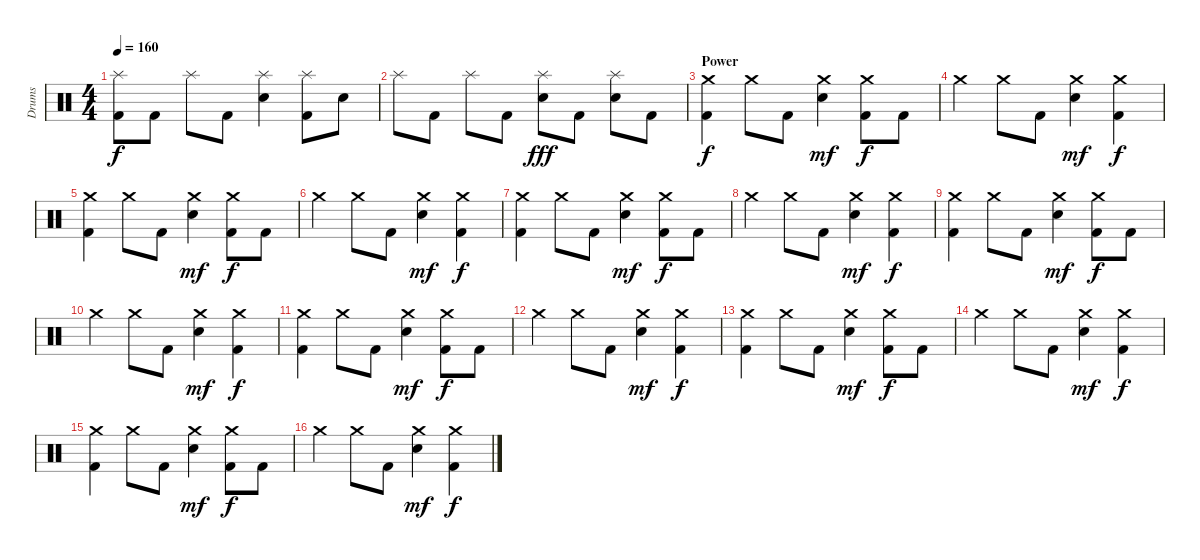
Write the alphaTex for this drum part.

\track ("Drums" "Drums") {instrument percussion}
\staff {score}
\articulation defaults
\ts (4 4)
\tempo 160
\clef neutral
\ks c
("Splash (hit)" "Kick (hit) 2").8{dy f} "Kick (hit) 2".8 "Splash (hit)".8 "Kick (hit) 2".8 ("Splash (hit)" "Electric Snare (hit)").4 ("Splash (hit)" "Kick (hit) 2").8 "Electric Snare (hit)".8 |
"Splash (hit)".8 "Kick (hit) 2".8 "Splash (hit)".8 "Kick (hit) 2".8 ("Splash (hit)" "Electric Snare (hit)").8{dy fff} "Kick (hit) 2".8 ("Splash (hit)" "Electric Snare (hit)").8 "Kick (hit) 2".8 |
\section ("" "Power")
("Crash medium (hit)" "Kick (hit) 2").4{dy f} "Crash medium (hit)".8 "Kick (hit) 2".8 ("Crash medium (hit)" "Electric Snare (hit)").4{dy mf} ("Crash medium (hit)" "Kick (hit) 2").8{dy f} "Kick (hit) 2".8 |
"Crash medium (hit)".4 "Crash medium (hit)".8 "Kick (hit) 2".8 ("Crash medium (hit)" "Electric Snare (hit)").4{dy mf} ("Crash medium (hit)" "Kick (hit) 2").4{dy f} |
("Crash medium (hit)" "Kick (hit) 2").4 "Crash medium (hit)".8 "Kick (hit) 2".8 ("Crash medium (hit)" "Electric Snare (hit)").4{dy mf} ("Crash medium (hit)" "Kick (hit) 2").8{dy f} "Kick (hit) 2".8 |
"Crash medium (hit)".4 "Crash medium (hit)".8 "Kick (hit) 2".8 ("Crash medium (hit)" "Electric Snare (hit)").4{dy mf} ("Crash medium (hit)" "Kick (hit) 2").4{dy f} |
("Crash medium (hit)" "Kick (hit) 2").4 "Crash medium (hit)".8 "Kick (hit) 2".8 ("Crash medium (hit)" "Electric Snare (hit)").4{dy mf} ("Crash medium (hit)" "Kick (hit) 2").8{dy f} "Kick (hit) 2".8 |
"Crash medium (hit)".4 "Crash medium (hit)".8 "Kick (hit) 2".8 ("Crash medium (hit)" "Electric Snare (hit)").4{dy mf} ("Crash medium (hit)" "Kick (hit) 2").4{dy f} |
("Crash medium (hit)" "Kick (hit) 2").4 "Crash medium (hit)".8 "Kick (hit) 2".8 ("Crash medium (hit)" "Electric Snare (hit)").4{dy mf} ("Crash medium (hit)" "Kick (hit) 2").8{dy f} "Kick (hit) 2".8 |
"Crash medium (hit)".4 "Crash medium (hit)".8 "Kick (hit) 2".8 ("Crash medium (hit)" "Electric Snare (hit)").4{dy mf} ("Crash medium (hit)" "Kick (hit) 2").4{dy f} |
("Crash medium (hit)" "Kick (hit) 2").4 "Crash medium (hit)".8 "Kick (hit) 2".8 ("Crash medium (hit)" "Electric Snare (hit)").4{dy mf} ("Crash medium (hit)" "Kick (hit) 2").8{dy f} "Kick (hit) 2".8 |
"Crash medium (hit)".4 "Crash medium (hit)".8 "Kick (hit) 2".8 ("Crash medium (hit)" "Electric Snare (hit)").4{dy mf} ("Crash medium (hit)" "Kick (hit) 2").4{dy f} |
("Crash medium (hit)" "Kick (hit) 2").4 "Crash medium (hit)".8 "Kick (hit) 2".8 ("Crash medium (hit)" "Electric Snare (hit)").4{dy mf} ("Crash medium (hit)" "Kick (hit) 2").8{dy f} "Kick (hit) 2".8 |
"Crash medium (hit)".4 "Crash medium (hit)".8 "Kick (hit) 2".8 ("Crash medium (hit)" "Electric Snare (hit)").4{dy mf} ("Crash medium (hit)" "Kick (hit) 2").4{dy f} |
("Crash medium (hit)" "Kick (hit) 2").4 "Crash medium (hit)".8 "Kick (hit) 2".8 ("Crash medium (hit)" "Electric Snare (hit)").4{dy mf} ("Crash medium (hit)" "Kick (hit) 2").8{dy f} "Kick (hit) 2".8 |
"Crash medium (hit)".4 "Crash medium (hit)".8 "Kick (hit) 2".8 ("Crash medium (hit)" "Electric Snare (hit)").4{dy mf} ("Crash medium (hit)" "Kick (hit) 2").4{dy f}
